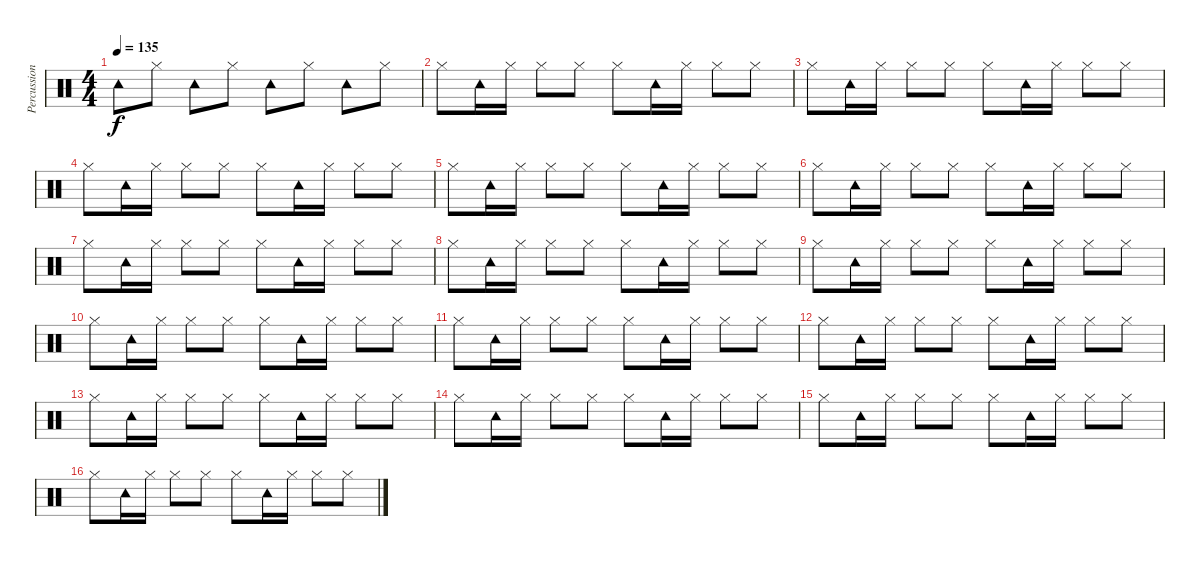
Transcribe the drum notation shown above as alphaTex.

\track ("Percussion2" "Percussion") {instrument percussion}
\staff {score}
\articulation defaults
\ts (4 4)
\tempo 135
\clef neutral
\ks c "Tambourine (hit)".8{dy f} "Hi-Hat (closed)".8 "Tambourine (hit)".8 "Hi-Hat (closed)".8 "Tambourine (hit)".8 "Hi-Hat (closed)".8 "Tambourine (hit)".8 "Hi-Hat (closed)".8
|
"Hi-Hat (closed)".8 "Tambourine (hit)".16 "Hi-Hat (closed)".16 "Hi-Hat (closed)".8 "Hi-Hat (closed)".8 "Hi-Hat (closed)".8 "Tambourine (hit)".16 "Hi-Hat (closed)".16 "Hi-Hat (closed)".8 "Hi-Hat (closed)".8 |
"Hi-Hat (closed)".8 "Tambourine (hit)".16 "Hi-Hat (closed)".16 "Hi-Hat (closed)".8 "Hi-Hat (closed)".8 "Hi-Hat (closed)".8 "Tambourine (hit)".16 "Hi-Hat (closed)".16 "Hi-Hat (closed)".8 "Hi-Hat (closed)".8 |
"Hi-Hat (closed)".8 "Tambourine (hit)".16 "Hi-Hat (closed)".16 "Hi-Hat (closed)".8 "Hi-Hat (closed)".8 "Hi-Hat (closed)".8 "Tambourine (hit)".16 "Hi-Hat (closed)".16 "Hi-Hat (closed)".8 "Hi-Hat (closed)".8 |
"Hi-Hat (closed)".8 "Tambourine (hit)".16 "Hi-Hat (closed)".16 "Hi-Hat (closed)".8 "Hi-Hat (closed)".8 "Hi-Hat (closed)".8 "Tambourine (hit)".16 "Hi-Hat (closed)".16 "Hi-Hat (closed)".8 "Hi-Hat (closed)".8 |
"Hi-Hat (closed)".8 "Tambourine (hit)".16 "Hi-Hat (closed)".16 "Hi-Hat (closed)".8 "Hi-Hat (closed)".8 "Hi-Hat (closed)".8 "Tambourine (hit)".16 "Hi-Hat (closed)".16 "Hi-Hat (closed)".8 "Hi-Hat (closed)".8 |
"Hi-Hat (closed)".8 "Tambourine (hit)".16 "Hi-Hat (closed)".16 "Hi-Hat (closed)".8 "Hi-Hat (closed)".8 "Hi-Hat (closed)".8 "Tambourine (hit)".16 "Hi-Hat (closed)".16 "Hi-Hat (closed)".8 "Hi-Hat (closed)".8 |
"Hi-Hat (closed)".8 "Tambourine (hit)".16 "Hi-Hat (closed)".16 "Hi-Hat (closed)".8 "Hi-Hat (closed)".8 "Hi-Hat (closed)".8 "Tambourine (hit)".16 "Hi-Hat (closed)".16 "Hi-Hat (closed)".8 "Hi-Hat (closed)".8 |
"Hi-Hat (closed)".8 "Tambourine (hit)".16 "Hi-Hat (closed)".16 "Hi-Hat (closed)".8 "Hi-Hat (closed)".8 "Hi-Hat (closed)".8 "Tambourine (hit)".16 "Hi-Hat (closed)".16 "Hi-Hat (closed)".8 "Hi-Hat (closed)".8 |
"Hi-Hat (closed)".8 "Tambourine (hit)".16 "Hi-Hat (closed)".16 "Hi-Hat (closed)".8 "Hi-Hat (closed)".8 "Hi-Hat (closed)".8 "Tambourine (hit)".16 "Hi-Hat (closed)".16 "Hi-Hat (closed)".8 "Hi-Hat (closed)".8 |
"Hi-Hat (closed)".8 "Tambourine (hit)".16 "Hi-Hat (closed)".16 "Hi-Hat (closed)".8 "Hi-Hat (closed)".8 "Hi-Hat (closed)".8 "Tambourine (hit)".16 "Hi-Hat (closed)".16 "Hi-Hat (closed)".8 "Hi-Hat (closed)".8 |
"Hi-Hat (closed)".8 "Tambourine (hit)".16 "Hi-Hat (closed)".16 "Hi-Hat (closed)".8 "Hi-Hat (closed)".8 "Hi-Hat (closed)".8 "Tambourine (hit)".16 "Hi-Hat (closed)".16 "Hi-Hat (closed)".8 "Hi-Hat (closed)".8 |
"Hi-Hat (closed)".8 "Tambourine (hit)".16 "Hi-Hat (closed)".16 "Hi-Hat (closed)".8 "Hi-Hat (closed)".8 "Hi-Hat (closed)".8 "Tambourine (hit)".16 "Hi-Hat (closed)".16 "Hi-Hat (closed)".8 "Hi-Hat (closed)".8 |
"Hi-Hat (closed)".8 "Tambourine (hit)".16 "Hi-Hat (closed)".16 "Hi-Hat (closed)".8 "Hi-Hat (closed)".8 "Hi-Hat (closed)".8 "Tambourine (hit)".16 "Hi-Hat (closed)".16 "Hi-Hat (closed)".8 "Hi-Hat (closed)".8 |
"Hi-Hat (closed)".8 "Tambourine (hit)".16 "Hi-Hat (closed)".16 "Hi-Hat (closed)".8 "Hi-Hat (closed)".8 "Hi-Hat (closed)".8 "Tambourine (hit)".16 "Hi-Hat (closed)".16 "Hi-Hat (closed)".8 "Hi-Hat (closed)".8 |
"Hi-Hat (closed)".8 "Tambourine (hit)".16 "Hi-Hat (closed)".16 "Hi-Hat (closed)".8 "Hi-Hat (closed)".8 "Hi-Hat (closed)".8 "Tambourine (hit)".16 "Hi-Hat (closed)".16 "Hi-Hat (closed)".8 "Hi-Hat (closed)".8
